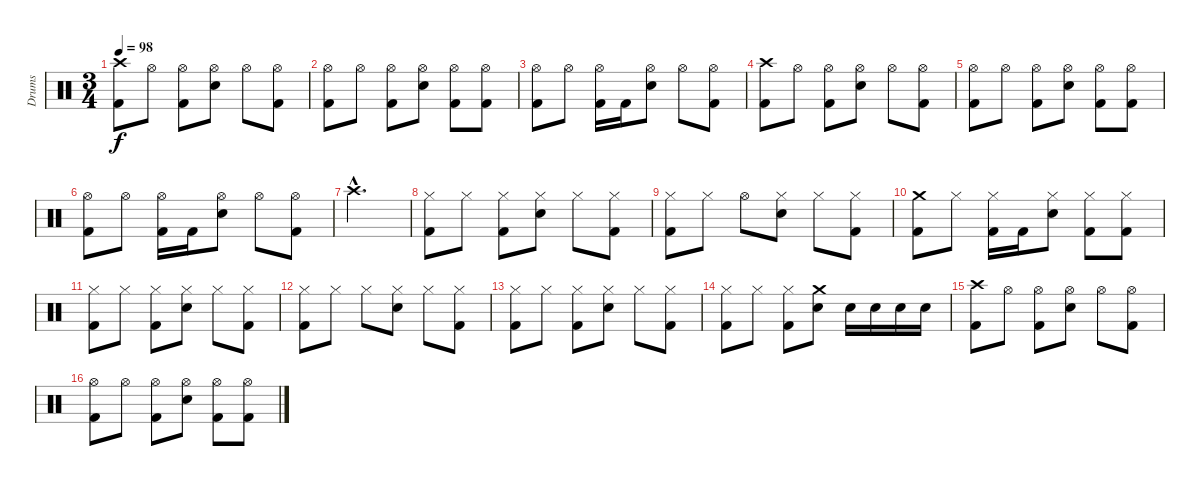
\track ("Drums" "Drums") {instrument percussion}
\staff {score}
\articulation defaults
\ts (3 4)
\tempo 98
\clef neutral
\ks c
("Crash high (hit)" "Kick (hit) 2").8{dy f} "Hi-Hat (open)".8 ("Hi-Hat (open)" "Kick (hit) 2").8 ("Hi-Hat (open)" "Snare (hit) 2").8 "Hi-Hat (open)".8 ("Hi-Hat (open)" "Kick (hit) 2").8 |
("Hi-Hat (open)" "Kick (hit) 2").8 "Hi-Hat (open)".8 ("Hi-Hat (open)" "Kick (hit) 2").8 ("Hi-Hat (open)" "Snare (hit) 2").8 ("Hi-Hat (open)" "Kick (hit) 2").8 ("Hi-Hat (open)" "Kick (hit) 2").8 |
("Hi-Hat (open)" "Kick (hit) 2").8 "Hi-Hat (open)".8 ("Hi-Hat (open)" "Kick (hit) 2").16 "Kick (hit) 2".16 ("Hi-Hat (open)" "Snare (hit) 2").8 "Hi-Hat (open)".8 ("Hi-Hat (open)" "Kick (hit) 2").8 |
("Crash high (hit)" "Kick (hit) 2").8 "Hi-Hat (open)".8 ("Hi-Hat (open)" "Kick (hit) 2").8 ("Hi-Hat (open)" "Snare (hit) 2").8 "Hi-Hat (open)".8 ("Hi-Hat (open)" "Kick (hit) 2").8 |
("Hi-Hat (open)" "Kick (hit) 2").8 "Hi-Hat (open)".8 ("Hi-Hat (open)" "Kick (hit) 2").8 ("Hi-Hat (open)" "Snare (hit) 2").8 ("Hi-Hat (open)" "Kick (hit) 2").8 ("Hi-Hat (open)" "Kick (hit) 2").8 |
("Hi-Hat (open)" "Kick (hit) 2").8 "Hi-Hat (open)".8 ("Hi-Hat (open)" "Kick (hit) 2").16 "Kick (hit) 2".16 ("Hi-Hat (open)" "Snare (hit) 2").8 "Hi-Hat (open)".8 ("Hi-Hat (open)" "Kick (hit) 2").8 |
"Crash high (hit)"{hac}.2{d} |
("Hi-Hat (closed)" "Kick (hit) 2").8 "Hi-Hat (closed)".8 ("Hi-Hat (closed)" "Kick (hit) 2").8 ("Hi-Hat (closed)" "Snare (hit) 2").8 "Hi-Hat (closed)".8 ("Hi-Hat (closed)" "Kick (hit) 2").8 |
("Hi-Hat (closed)" "Kick (hit) 2").8 "Hi-Hat (closed)".8 "Hi-Hat (open)".8 ("Hi-Hat (closed)" "Snare (hit) 2").8 "Hi-Hat (closed)".8 ("Hi-Hat (closed)" "Kick (hit) 2").8 |
("Crash medium (hit)" "Kick (hit) 2").8 "Hi-Hat (closed)".8 ("Hi-Hat (closed)" "Kick (hit) 2").16 "Kick (hit) 2".16 ("Hi-Hat (closed)" "Snare (hit) 2").8 ("Hi-Hat (closed)" "Kick (hit) 2").8 ("Hi-Hat (closed)" "Kick (hit) 2").8 |
("Hi-Hat (closed)" "Kick (hit) 2").8 "Hi-Hat (closed)".8 ("Hi-Hat (closed)" "Kick (hit) 2").8 ("Hi-Hat (closed)" "Snare (hit) 2").8 "Hi-Hat (closed)".8 ("Hi-Hat (closed)" "Kick (hit) 2").8 |
("Hi-Hat (closed)" "Kick (hit) 2").8 "Hi-Hat (closed)".8 "Hi-Hat (closed)".8 ("Hi-Hat (closed)" "Snare (hit) 2").8 "Hi-Hat (closed)".8 ("Hi-Hat (closed)" "Kick (hit) 2").8 |
("Hi-Hat (closed)" "Kick (hit) 2").8 "Hi-Hat (closed)".8 ("Hi-Hat (closed)" "Kick (hit) 2").8 ("Hi-Hat (closed)" "Snare (hit) 2").8 "Hi-Hat (closed)".8 ("Hi-Hat (closed)" "Kick (hit) 2").8 |
("Hi-Hat (closed)" "Kick (hit) 2").8 "Hi-Hat (closed)".8 ("Hi-Hat (closed)" "Kick (hit) 2").8 ("Crash medium (hit)" "Snare (hit) 2").8 "Snare (hit) 2".16 "Snare (hit) 2".16 "Snare (hit) 2".16 "Snare (hit) 2".16 |
("Crash high (hit)" "Kick (hit) 2").8 "Hi-Hat (open)".8 ("Hi-Hat (open)" "Kick (hit) 2").8 ("Hi-Hat (open)" "Snare (hit) 2").8 "Hi-Hat (open)".8 ("Hi-Hat (open)" "Kick (hit) 2").8 |
("Hi-Hat (open)" "Kick (hit) 2").8 "Hi-Hat (open)".8 ("Hi-Hat (open)" "Kick (hit) 2").8 ("Hi-Hat (open)" "Snare (hit) 2").8 ("Hi-Hat (open)" "Kick (hit) 2").8 ("Hi-Hat (open)" "Kick (hit) 2").8
